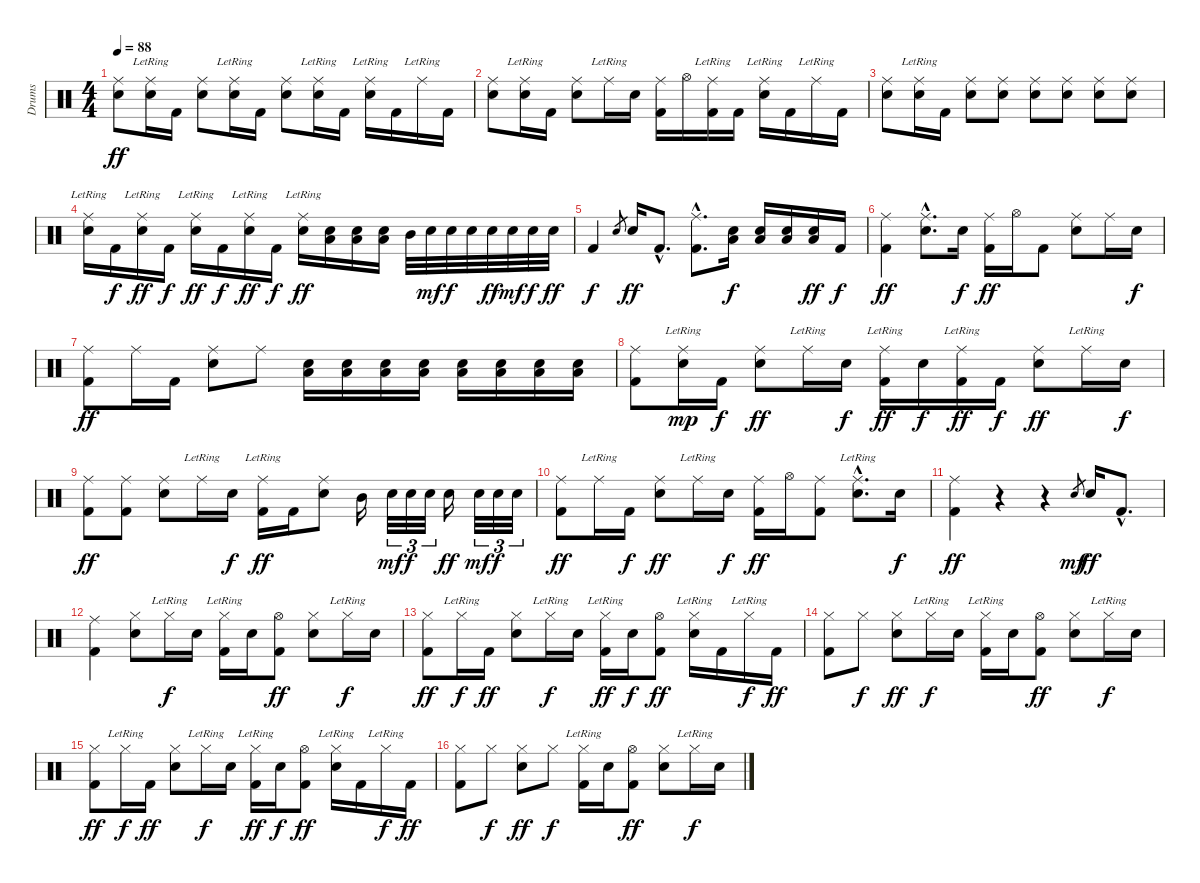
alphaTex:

\track ("Drums" "Drums") {instrument percussion}
\staff {score}
\articulation defaults
\ts (4 4)
\tempo 88
\clef neutral
\ks c
("Ride (middle)" "Electric Snare (hit)").8{dy ff} ("Ride (middle)"{lr} "Electric Snare (hit)").16 "Kick (hit) 2".16 ("Ride (middle)" "Electric Snare (hit)").8 ("Ride (middle)"{lr} "Electric Snare (hit)").16 "Kick (hit) 2".16 ("Ride (middle)" "Electric Snare (hit)").8 ("Ride (middle)"{lr} "Electric Snare (hit)").16 "Kick (hit) 2".16 ("Ride (middle)"{lr} "Electric Snare (hit)").16 "Kick (hit) 2".16 "Ride (middle)"{lr}.16 "Kick (hit) 2".16 |
("Ride (middle)" "Electric Snare (hit)").8 ("Ride (middle)"{lr} "Electric Snare (hit)").16 "Kick (hit) 2".16 ("Ride (middle)" "Electric Snare (hit)").8 "Ride (middle)"{lr}.16 "Electric Snare (hit)".16 ("Ride (middle)" "Kick (hit) 2").16 "Hi-Hat (open)".16 ("Ride (middle)"{lr} "Kick (hit) 2").16 "Kick (hit) 2".16 ("Ride (middle)"{lr} "Electric Snare (hit)").16 "Kick (hit) 2".16 "Ride (middle)"{lr}.16 "Kick (hit) 2".16 |
("Ride (middle)" "Electric Snare (hit)").8 ("Ride (middle)"{lr} "Electric Snare (hit)").16 "Kick (hit) 2".16 ("Ride (middle)" "Electric Snare (hit)").8 ("Ride (middle)" "Electric Snare (hit)").8 ("Ride (middle)" "Electric Snare (hit)").8 ("Ride (middle)" "Electric Snare (hit)").8 ("Ride (middle)" "Electric Snare (hit)").8 ("Ride (middle)" "Electric Snare (hit)").8 |
("Ride (middle)"{lr} "Electric Snare (hit)").16 "Kick (hit) 2".16{dy f} ("Ride (middle)"{lr} "Electric Snare (hit)").16{dy ff} "Kick (hit) 2".16{dy f} ("Ride (middle)"{lr} "Electric Snare (hit)").16{dy ff} "Kick (hit) 2".16{dy f} ("Ride (middle)"{lr} "Electric Snare (hit)").16{dy ff} "Kick (hit) 2".16{dy f} ("Ride (middle)"{lr} "Electric Snare (hit)").16{dy ff} ("Electric Snare (hit)" "Low Tom (hit)").16 ("Electric Snare (hit)" "Low Tom (hit)").16 ("Electric Snare (hit)" "Low Tom (hit)").16 "Mid Tom (hit)".32 "Electric Snare (hit)".32{dy mf} "Electric Snare (hit)".32{dy f} "Electric Snare (hit)".32 "Electric Snare (hit)".32{dy ff} "Electric Snare (hit)".32{dy mf} "Electric Snare (hit)".32{dy f} "Electric Snare (hit)".32{dy ff} |
"Kick (hit) 2".4{dy f} "Electric Snare (hit)".8{gr} "Electric Snare (hit)".16{dy ff} "Kick (hit) 2"{hac}.8{d} ("Ride (middle)"{hac} "Kick (hit) 2"{hac}).8{d} ("Electric Snare (hit)" "Low Tom (hit)").16{dy f} ("Electric Snare (hit)" "Low Tom (hit)").16 ("Electric Snare (hit)" "Low Tom (hit)").16 ("Electric Snare (hit)" "Low Tom (hit)").16{dy ff} "Kick (hit) 2".16{dy f} |
("Ride (middle)" "Kick (hit) 2").4{dy ff} ("Ride (middle)"{hac} "Electric Snare (hit)"{hac}).8{d} "Electric Snare (hit)".16{dy f} ("Ride (middle)" "Kick (hit) 2").16{dy ff} "Hi-Hat (open)".16 "Kick (hit) 2".8 ("Ride (middle)" "Electric Snare (hit)").8 "Ride (middle)".16 "Electric Snare (hit)".16{dy f} |
("Ride (middle)" "Kick (hit) 2").8{dy ff} "Ride (middle)".16 "Kick (hit) 2".16 ("Ride (middle)" "Electric Snare (hit)").8 "Ride (middle)".8 ("Electric Snare (hit)" "Low Tom (hit)").16 ("Electric Snare (hit)" "Low Tom (hit)").16 ("Electric Snare (hit)" "Low Tom (hit)").16 ("Electric Snare (hit)" "Low Tom (hit)").16 ("Electric Snare (hit)" "Low Tom (hit)").16 ("Electric Snare (hit)" "Low Tom (hit)").16 ("Electric Snare (hit)" "Low Tom (hit)").16 ("Electric Snare (hit)" "Low Tom (hit)").16 |
("Ride (middle)" "Kick (hit) 2").8 ("Ride (middle)"{lr} "Electric Snare (hit)").16{dy mp} "Kick (hit) 2".16{dy f} ("Ride (middle)" "Electric Snare (hit)").8{dy ff} "Ride (middle)"{lr}.16 "Electric Snare (hit)".16{dy f} ("Ride (middle)"{lr} "Kick (hit) 2").16{dy ff} "Electric Snare (hit)".16{dy f} ("Ride (middle)"{lr} "Kick (hit) 2").16{dy ff} "Kick (hit) 2".16{dy f} ("Ride (middle)" "Electric Snare (hit)").8{dy ff} "Ride (middle)"{lr}.16 "Electric Snare (hit)".16{dy f} |
("Ride (middle)" "Kick (hit) 2").8{dy ff} ("Ride (middle)" "Kick (hit) 2").8 ("Ride (middle)" "Electric Snare (hit)").8 "Ride (middle)"{lr}.16 "Electric Snare (hit)".16{dy f} ("Ride (middle)"{lr} "Kick (hit) 2").16{dy ff} "Kick (hit) 2".16 ("Ride (middle)" "Electric Snare (hit)").8 "Mid Tom (hit)".16 "Electric Snare (hit)".32{tu (3 2) dy mf} "Electric Snare (hit)".32{tu (3 2) dy f} "Electric Snare (hit)".32{tu (3 2)} "Electric Snare (hit)".16{dy ff} "Electric Snare (hit)".32{tu (3 2) dy mf} "Electric Snare (hit)".32{tu (3 2) dy f} "Electric Snare (hit)".32{tu (3 2)} |
("Ride (middle)" "Kick (hit) 2").8{dy ff} "Ride (middle)"{lr}.16 "Kick (hit) 2".16{dy f} ("Ride (middle)" "Electric Snare (hit)").8{dy ff} "Ride (middle)"{lr}.16 "Electric Snare (hit)".16{dy f} ("Ride (middle)" "Kick (hit) 2").16{dy ff} "Hi-Hat (open)".16 ("Ride (middle)" "Kick (hit) 2").8 ("Ride (middle)"{hac lr} "Electric Snare (hit)"{hac}).8{d} "Electric Snare (hit)".16{dy f} |
("Ride (middle)" "Kick (hit) 2").4{dy ff} r.4 r.4 "Electric Snare (hit)".8{gr dy mf} "Electric Snare (hit)".16{dy ff} "Kick (hit) 2"{hac}.8{d} |
("Ride (middle)" "Kick (hit) 2").4 ("Hi-Hat (closed)" "Electric Snare (hit)").8 "Hi-Hat (closed)"{lr}.16{dy f} "Electric Snare (hit)".16 ("Hi-Hat (closed)"{lr} "Kick (hit) 2").16 "Electric Snare (hit)".16 ("Hi-Hat (open)" "Kick (hit) 2").8{dy ff} ("Hi-Hat (closed)" "Electric Snare (hit)").8 "Hi-Hat (closed)"{lr}.16{dy f} "Electric Snare (hit)".16 |
("Hi-Hat (closed)" "Kick (hit) 2").8{dy ff} "Hi-Hat (closed)"{lr}.16{dy f} "Kick (hit) 2".16{dy ff} ("Hi-Hat (closed)" "Electric Snare (hit)").8 "Hi-Hat (closed)"{lr}.16{dy f} "Electric Snare (hit)".16 ("Hi-Hat (closed)"{lr} "Kick (hit) 2").16{dy ff} "Electric Snare (hit)".16{dy f} ("Hi-Hat (open)" "Kick (hit) 2").8{dy ff} ("Hi-Hat (closed)"{lr} "Electric Snare (hit)").16 "Kick (hit) 2".16 "Hi-Hat (closed)"{lr}.16{dy f} "Kick (hit) 2".16{dy ff} |
("Hi-Hat (closed)" "Kick (hit) 2").8 "Hi-Hat (closed)".8{dy f} ("Hi-Hat (closed)" "Electric Snare (hit)").8{dy ff} "Hi-Hat (closed)"{lr}.16{dy f} "Electric Snare (hit)".16 ("Hi-Hat (closed)"{lr} "Kick (hit) 2").16 "Electric Snare (hit)".16 ("Hi-Hat (open)" "Kick (hit) 2").8{dy ff} ("Hi-Hat (closed)" "Electric Snare (hit)").8 "Hi-Hat (closed)"{lr}.16{dy f} "Electric Snare (hit)".16 |
("Hi-Hat (closed)" "Kick (hit) 2").8{dy ff} "Hi-Hat (closed)"{lr}.16{dy f} "Kick (hit) 2".16{dy ff} ("Hi-Hat (closed)" "Electric Snare (hit)").8 "Hi-Hat (closed)"{lr}.16{dy f} "Electric Snare (hit)".16 ("Hi-Hat (closed)"{lr} "Kick (hit) 2").16{dy ff} "Electric Snare (hit)".16{dy f} ("Hi-Hat (open)" "Kick (hit) 2").8{dy ff} ("Hi-Hat (closed)"{lr} "Electric Snare (hit)").16 "Kick (hit) 2".16 "Hi-Hat (closed)"{lr}.16{dy f} "Kick (hit) 2".16{dy ff} |
("Hi-Hat (closed)" "Kick (hit) 2").8 "Hi-Hat (closed)".8{dy f} ("Hi-Hat (closed)" "Electric Snare (hit)").8{dy ff} "Hi-Hat (closed)".8{dy f} ("Hi-Hat (closed)"{lr} "Kick (hit) 2").16 "Electric Snare (hit)".16 ("Hi-Hat (open)" "Kick (hit) 2").8{dy ff} ("Hi-Hat (closed)" "Electric Snare (hit)").8 "Hi-Hat (closed)"{lr}.16{dy f} "Electric Snare (hit)".16
